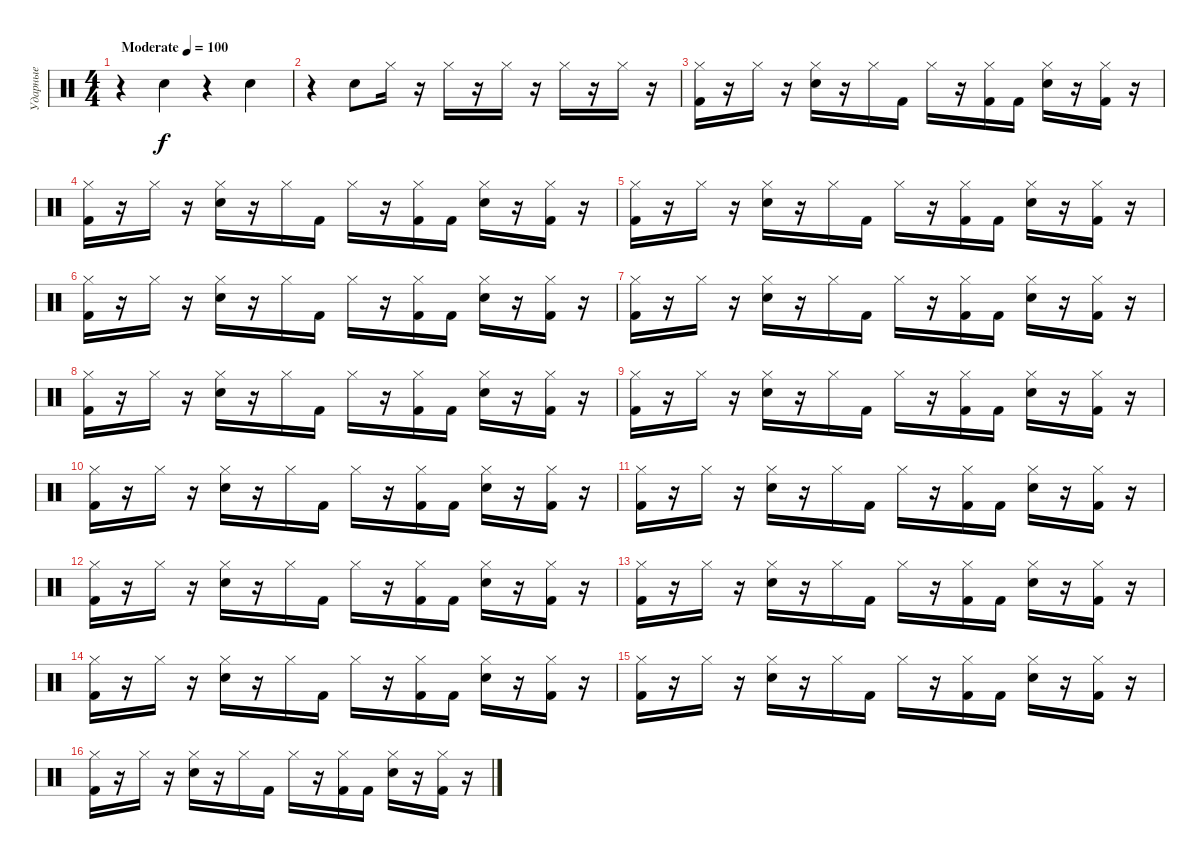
\track ("Ударные" "Ударные") {instrument percussion}
\staff {score}
\articulation defaults
\ts (4 4)
\tempo (100 "Moderate")
\clef neutral
\ks c
r.4{dy f} "Electric Snare (hit)".4 r.4 "Electric Snare (hit)".4 |
r.4 "Electric Snare (hit)".8 "Hi-Hat (closed)".16 r.16 "Hi-Hat (closed)".16 r.16 "Hi-Hat (closed)".16 r.16 "Hi-Hat (closed)".16 r.16 "Hi-Hat (closed)".16 r.16 |
("Kick (hit) 2" "Hi-Hat (closed)").16 r.16 "Hi-Hat (closed)".16 r.16 ("Electric Snare (hit)" "Hi-Hat (closed)").16 r.16 "Hi-Hat (closed)".16 "Kick (hit) 2".16 "Hi-Hat (closed)".16 r.16 ("Kick (hit) 2" "Hi-Hat (closed)").16 "Kick (hit) 2".16 ("Electric Snare (hit)" "Hi-Hat (closed)").16 r.16 ("Kick (hit) 2" "Hi-Hat (closed)").16 r.16 |
("Kick (hit) 2" "Hi-Hat (closed)").16 r.16 "Hi-Hat (closed)".16 r.16 ("Electric Snare (hit)" "Hi-Hat (closed)").16 r.16 "Hi-Hat (closed)".16 "Kick (hit) 2".16 "Hi-Hat (closed)".16 r.16 ("Kick (hit) 2" "Hi-Hat (closed)").16 "Kick (hit) 2".16 ("Electric Snare (hit)" "Hi-Hat (closed)").16 r.16 ("Kick (hit) 2" "Hi-Hat (closed)").16 r.16 |
("Kick (hit) 2" "Hi-Hat (closed)").16 r.16 "Hi-Hat (closed)".16 r.16 ("Electric Snare (hit)" "Hi-Hat (closed)").16 r.16 "Hi-Hat (closed)".16 "Kick (hit) 2".16 "Hi-Hat (closed)".16 r.16 ("Kick (hit) 2" "Hi-Hat (closed)").16 "Kick (hit) 2".16 ("Electric Snare (hit)" "Hi-Hat (closed)").16 r.16 ("Kick (hit) 2" "Hi-Hat (closed)").16 r.16 |
("Kick (hit) 2" "Hi-Hat (closed)").16 r.16 "Hi-Hat (closed)".16 r.16 ("Electric Snare (hit)" "Hi-Hat (closed)").16 r.16 "Hi-Hat (closed)".16 "Kick (hit) 2".16 "Hi-Hat (closed)".16 r.16 ("Kick (hit) 2" "Hi-Hat (closed)").16 "Kick (hit) 2".16 ("Electric Snare (hit)" "Hi-Hat (closed)").16 r.16 ("Kick (hit) 2" "Hi-Hat (closed)").16 r.16 |
("Kick (hit) 2" "Hi-Hat (closed)").16 r.16 "Hi-Hat (closed)".16 r.16 ("Electric Snare (hit)" "Hi-Hat (closed)").16 r.16 "Hi-Hat (closed)".16 "Kick (hit) 2".16 "Hi-Hat (closed)".16 r.16 ("Kick (hit) 2" "Hi-Hat (closed)").16 "Kick (hit) 2".16 ("Electric Snare (hit)" "Hi-Hat (closed)").16 r.16 ("Kick (hit) 2" "Hi-Hat (closed)").16 r.16 |
("Kick (hit) 2" "Hi-Hat (closed)").16 r.16 "Hi-Hat (closed)".16 r.16 ("Electric Snare (hit)" "Hi-Hat (closed)").16 r.16 "Hi-Hat (closed)".16 "Kick (hit) 2".16 "Hi-Hat (closed)".16 r.16 ("Kick (hit) 2" "Hi-Hat (closed)").16 "Kick (hit) 2".16 ("Electric Snare (hit)" "Hi-Hat (closed)").16 r.16 ("Kick (hit) 2" "Hi-Hat (closed)").16 r.16 |
("Kick (hit) 2" "Hi-Hat (closed)").16 r.16 "Hi-Hat (closed)".16 r.16 ("Electric Snare (hit)" "Hi-Hat (closed)").16 r.16 "Hi-Hat (closed)".16 "Kick (hit) 2".16 "Hi-Hat (closed)".16 r.16 ("Kick (hit) 2" "Hi-Hat (closed)").16 "Kick (hit) 2".16 ("Electric Snare (hit)" "Hi-Hat (closed)").16 r.16 ("Kick (hit) 2" "Hi-Hat (closed)").16 r.16 |
("Kick (hit) 2" "Hi-Hat (closed)").16 r.16 "Hi-Hat (closed)".16 r.16 ("Electric Snare (hit)" "Hi-Hat (closed)").16 r.16 "Hi-Hat (closed)".16 "Kick (hit) 2".16 "Hi-Hat (closed)".16 r.16 ("Kick (hit) 2" "Hi-Hat (closed)").16 "Kick (hit) 2".16 ("Electric Snare (hit)" "Hi-Hat (closed)").16 r.16 ("Kick (hit) 2" "Hi-Hat (closed)").16 r.16 |
("Kick (hit) 2" "Hi-Hat (closed)").16 r.16 "Hi-Hat (closed)".16 r.16 ("Electric Snare (hit)" "Hi-Hat (closed)").16 r.16 "Hi-Hat (closed)".16 "Kick (hit) 2".16 "Hi-Hat (closed)".16 r.16 ("Kick (hit) 2" "Hi-Hat (closed)").16 "Kick (hit) 2".16 ("Electric Snare (hit)" "Hi-Hat (closed)").16 r.16 ("Kick (hit) 2" "Hi-Hat (closed)").16 r.16 |
("Kick (hit) 2" "Hi-Hat (closed)").16 r.16 "Hi-Hat (closed)".16 r.16 ("Electric Snare (hit)" "Hi-Hat (closed)").16 r.16 "Hi-Hat (closed)".16 "Kick (hit) 2".16 "Hi-Hat (closed)".16 r.16 ("Kick (hit) 2" "Hi-Hat (closed)").16 "Kick (hit) 2".16 ("Electric Snare (hit)" "Hi-Hat (closed)").16 r.16 ("Kick (hit) 2" "Hi-Hat (closed)").16 r.16 |
("Kick (hit) 2" "Hi-Hat (closed)").16 r.16 "Hi-Hat (closed)".16 r.16 ("Electric Snare (hit)" "Hi-Hat (closed)").16 r.16 "Hi-Hat (closed)".16 "Kick (hit) 2".16 "Hi-Hat (closed)".16 r.16 ("Kick (hit) 2" "Hi-Hat (closed)").16 "Kick (hit) 2".16 ("Electric Snare (hit)" "Hi-Hat (closed)").16 r.16 ("Kick (hit) 2" "Hi-Hat (closed)").16 r.16 |
("Kick (hit) 2" "Hi-Hat (closed)").16 r.16 "Hi-Hat (closed)".16 r.16 ("Electric Snare (hit)" "Hi-Hat (closed)").16 r.16 "Hi-Hat (closed)".16 "Kick (hit) 2".16 "Hi-Hat (closed)".16 r.16 ("Kick (hit) 2" "Hi-Hat (closed)").16 "Kick (hit) 2".16 ("Electric Snare (hit)" "Hi-Hat (closed)").16 r.16 ("Kick (hit) 2" "Hi-Hat (closed)").16 r.16 |
("Kick (hit) 2" "Hi-Hat (closed)").16 r.16 "Hi-Hat (closed)".16 r.16 ("Electric Snare (hit)" "Hi-Hat (closed)").16 r.16 "Hi-Hat (closed)".16 "Kick (hit) 2".16 "Hi-Hat (closed)".16 r.16 ("Kick (hit) 2" "Hi-Hat (closed)").16 "Kick (hit) 2".16 ("Electric Snare (hit)" "Hi-Hat (closed)").16 r.16 ("Kick (hit) 2" "Hi-Hat (closed)").16 r.16 |
("Kick (hit) 2" "Hi-Hat (closed)").16 r.16 "Hi-Hat (closed)".16 r.16 ("Electric Snare (hit)" "Hi-Hat (closed)").16 r.16 "Hi-Hat (closed)".16 "Kick (hit) 2".16 "Hi-Hat (closed)".16 r.16 ("Kick (hit) 2" "Hi-Hat (closed)").16 "Kick (hit) 2".16 ("Electric Snare (hit)" "Hi-Hat (closed)").16 r.16 ("Kick (hit) 2" "Hi-Hat (closed)").16 r.16
